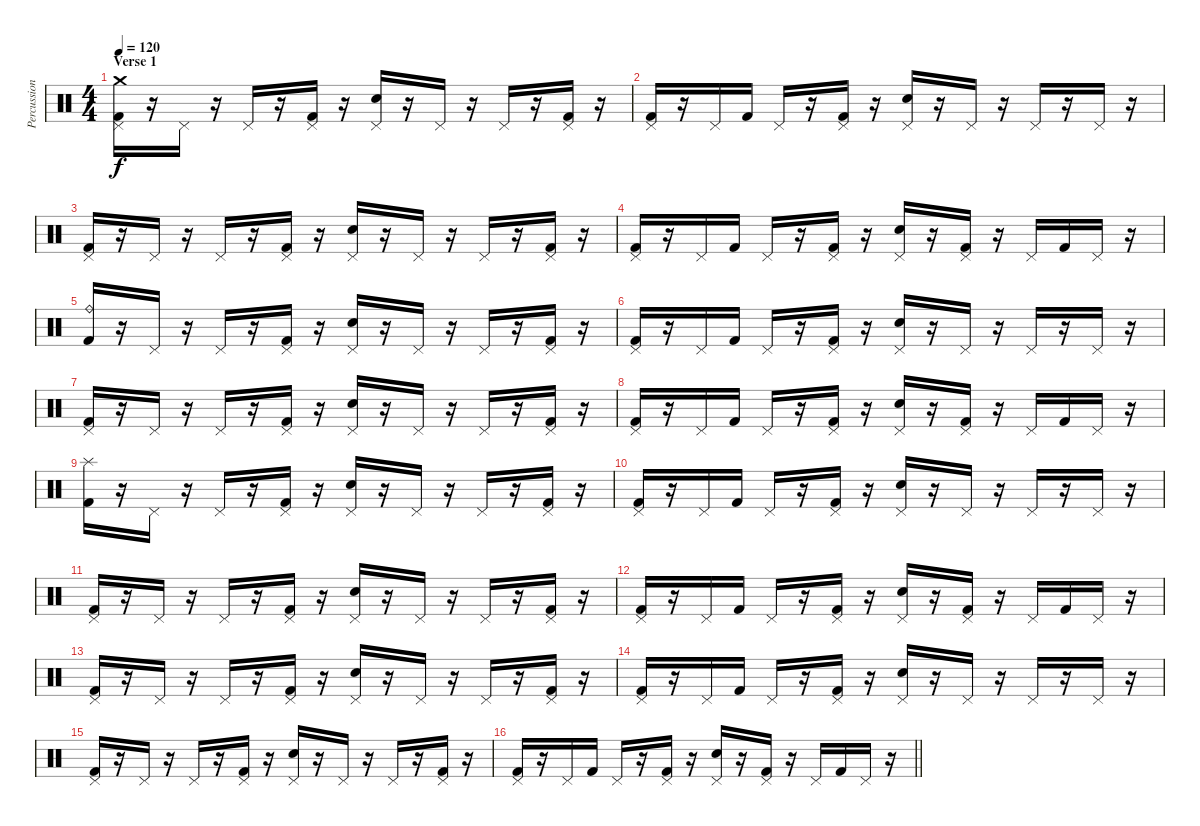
\track ("Percussion" "Percussion") {instrument percussion}
\staff {score}
\articulation defaults
\ts (4 4)
\section ("" "Verse 1")
\tempo 120
\clef neutral
\ks c
("Crash medium (hit)" "Pedal Hi-Hat (hit)" "Kick (hit) 2").16{dy f} r.16 "Pedal Hi-Hat (hit)".16 r.16 "Pedal Hi-Hat (hit)".16 r.16 ("Pedal Hi-Hat (hit)" "Kick (hit) 2").16 r.16 ("Pedal Hi-Hat (hit)" "Electric Snare (hit)").16 r.16 "Pedal Hi-Hat (hit)".16 r.16 "Pedal Hi-Hat (hit)".16 r.16 ("Pedal Hi-Hat (hit)" "Kick (hit) 2").16 r.16 |
("Pedal Hi-Hat (hit)" "Kick (hit) 2").16 r.16 "Pedal Hi-Hat (hit)".16 "Kick (hit) 2".16 "Pedal Hi-Hat (hit)".16 r.16 ("Pedal Hi-Hat (hit)" "Kick (hit) 2").16 r.16 ("Pedal Hi-Hat (hit)" "Electric Snare (hit)").16 r.16 "Pedal Hi-Hat (hit)".16 r.16 "Pedal Hi-Hat (hit)".16 r.16 "Pedal Hi-Hat (hit)".16 r.16 |
("Pedal Hi-Hat (hit)" "Kick (hit) 2").16 r.16 "Pedal Hi-Hat (hit)".16 r.16 "Pedal Hi-Hat (hit)".16 r.16 ("Pedal Hi-Hat (hit)" "Kick (hit) 2").16 r.16 ("Pedal Hi-Hat (hit)" "Electric Snare (hit)").16 r.16 "Pedal Hi-Hat (hit)".16 r.16 "Pedal Hi-Hat (hit)".16 r.16 ("Pedal Hi-Hat (hit)" "Kick (hit) 2").16 r.16 |
("Pedal Hi-Hat (hit)" "Kick (hit) 2").16 r.16 "Pedal Hi-Hat (hit)".16 "Kick (hit) 2".16 "Pedal Hi-Hat (hit)".16 r.16 ("Pedal Hi-Hat (hit)" "Kick (hit) 2").16 r.16 ("Pedal Hi-Hat (hit)" "Electric Snare (hit)").16 r.16 ("Pedal Hi-Hat (hit)" "Kick (hit) 2").16 r.16 "Pedal Hi-Hat (hit)".16 "Kick (hit) 2".16 "Pedal Hi-Hat (hit)".16 r.16 |
("Ride (bell)" "Kick (hit) 2").16 r.16 "Pedal Hi-Hat (hit)".16 r.16 "Pedal Hi-Hat (hit)".16 r.16 ("Pedal Hi-Hat (hit)" "Kick (hit) 2").16 r.16 ("Pedal Hi-Hat (hit)" "Electric Snare (hit)").16 r.16 "Pedal Hi-Hat (hit)".16 r.16 "Pedal Hi-Hat (hit)".16 r.16 ("Pedal Hi-Hat (hit)" "Kick (hit) 2").16 r.16 |
("Pedal Hi-Hat (hit)" "Kick (hit) 2").16 r.16 "Pedal Hi-Hat (hit)".16 "Kick (hit) 2".16 "Pedal Hi-Hat (hit)".16 r.16 ("Pedal Hi-Hat (hit)" "Kick (hit) 2").16 r.16 ("Pedal Hi-Hat (hit)" "Electric Snare (hit)").16 r.16 "Pedal Hi-Hat (hit)".16 r.16 "Pedal Hi-Hat (hit)".16 r.16 "Pedal Hi-Hat (hit)".16 r.16 |
("Pedal Hi-Hat (hit)" "Kick (hit) 2").16 r.16 "Pedal Hi-Hat (hit)".16 r.16 "Pedal Hi-Hat (hit)".16 r.16 ("Pedal Hi-Hat (hit)" "Kick (hit) 2").16 r.16 ("Pedal Hi-Hat (hit)" "Electric Snare (hit)").16 r.16 "Pedal Hi-Hat (hit)".16 r.16 "Pedal Hi-Hat (hit)".16 r.16 ("Pedal Hi-Hat (hit)" "Kick (hit) 2").16 r.16 |
("Pedal Hi-Hat (hit)" "Kick (hit) 2").16 r.16 "Pedal Hi-Hat (hit)".16 "Kick (hit) 2".16 "Pedal Hi-Hat (hit)".16 r.16 ("Pedal Hi-Hat (hit)" "Kick (hit) 2").16 r.16 ("Pedal Hi-Hat (hit)" "Electric Snare (hit)").16 r.16 ("Pedal Hi-Hat (hit)" "Kick (hit) 2").16 r.16 "Pedal Hi-Hat (hit)".16 "Kick (hit) 2".16 "Pedal Hi-Hat (hit)".16 r.16 |
("Splash (hit)" "Kick (hit) 2").16 r.16 "Pedal Hi-Hat (hit)".16 r.16 "Pedal Hi-Hat (hit)".16 r.16 ("Pedal Hi-Hat (hit)" "Kick (hit) 2").16 r.16 ("Pedal Hi-Hat (hit)" "Electric Snare (hit)").16 r.16 "Pedal Hi-Hat (hit)".16 r.16 "Pedal Hi-Hat (hit)".16 r.16 ("Pedal Hi-Hat (hit)" "Kick (hit) 2").16 r.16 |
("Pedal Hi-Hat (hit)" "Kick (hit) 2").16 r.16 "Pedal Hi-Hat (hit)".16 "Kick (hit) 2".16 "Pedal Hi-Hat (hit)".16 r.16 ("Pedal Hi-Hat (hit)" "Kick (hit) 2").16 r.16 ("Pedal Hi-Hat (hit)" "Electric Snare (hit)").16 r.16 "Pedal Hi-Hat (hit)".16 r.16 "Pedal Hi-Hat (hit)".16 r.16 "Pedal Hi-Hat (hit)".16 r.16 |
("Pedal Hi-Hat (hit)" "Kick (hit) 2").16 r.16 "Pedal Hi-Hat (hit)".16 r.16 "Pedal Hi-Hat (hit)".16 r.16 ("Pedal Hi-Hat (hit)" "Kick (hit) 2").16 r.16 ("Pedal Hi-Hat (hit)" "Electric Snare (hit)").16 r.16 "Pedal Hi-Hat (hit)".16 r.16 "Pedal Hi-Hat (hit)".16 r.16 ("Pedal Hi-Hat (hit)" "Kick (hit) 2").16 r.16 |
("Pedal Hi-Hat (hit)" "Kick (hit) 2").16 r.16 "Pedal Hi-Hat (hit)".16 "Kick (hit) 2".16 "Pedal Hi-Hat (hit)".16 r.16 ("Pedal Hi-Hat (hit)" "Kick (hit) 2").16 r.16 ("Pedal Hi-Hat (hit)" "Electric Snare (hit)").16 r.16 ("Pedal Hi-Hat (hit)" "Kick (hit) 2").16 r.16 "Pedal Hi-Hat (hit)".16 "Kick (hit) 2".16 "Pedal Hi-Hat (hit)".16 r.16 |
("Pedal Hi-Hat (hit)" "Kick (hit) 2").16 r.16 "Pedal Hi-Hat (hit)".16 r.16 "Pedal Hi-Hat (hit)".16 r.16 ("Pedal Hi-Hat (hit)" "Kick (hit) 2").16 r.16 ("Pedal Hi-Hat (hit)" "Electric Snare (hit)").16 r.16 "Pedal Hi-Hat (hit)".16 r.16 "Pedal Hi-Hat (hit)".16 r.16 ("Pedal Hi-Hat (hit)" "Kick (hit) 2").16 r.16 |
("Pedal Hi-Hat (hit)" "Kick (hit) 2").16 r.16 "Pedal Hi-Hat (hit)".16 "Kick (hit) 2".16 "Pedal Hi-Hat (hit)".16 r.16 ("Pedal Hi-Hat (hit)" "Kick (hit) 2").16 r.16 ("Pedal Hi-Hat (hit)" "Electric Snare (hit)").16 r.16 "Pedal Hi-Hat (hit)".16 r.16 "Pedal Hi-Hat (hit)".16 r.16 "Pedal Hi-Hat (hit)".16 r.16 |
("Pedal Hi-Hat (hit)" "Kick (hit) 2").16 r.16 "Pedal Hi-Hat (hit)".16 r.16 "Pedal Hi-Hat (hit)".16 r.16 ("Pedal Hi-Hat (hit)" "Kick (hit) 2").16 r.16 ("Pedal Hi-Hat (hit)" "Electric Snare (hit)").16 r.16 "Pedal Hi-Hat (hit)".16 r.16 "Pedal Hi-Hat (hit)".16 r.16 ("Pedal Hi-Hat (hit)" "Kick (hit) 2").16 r.16 |
\barLineRight lightlight
("Pedal Hi-Hat (hit)" "Kick (hit) 2").16 r.16 "Pedal Hi-Hat (hit)".16 "Kick (hit) 2".16 "Pedal Hi-Hat (hit)".16 r.16 ("Pedal Hi-Hat (hit)" "Kick (hit) 2").16 r.16 ("Pedal Hi-Hat (hit)" "Electric Snare (hit)").16 r.16 ("Pedal Hi-Hat (hit)" "Kick (hit) 2").16 r.16 "Pedal Hi-Hat (hit)".16 "Kick (hit) 2".16 "Pedal Hi-Hat (hit)".16 r.16
